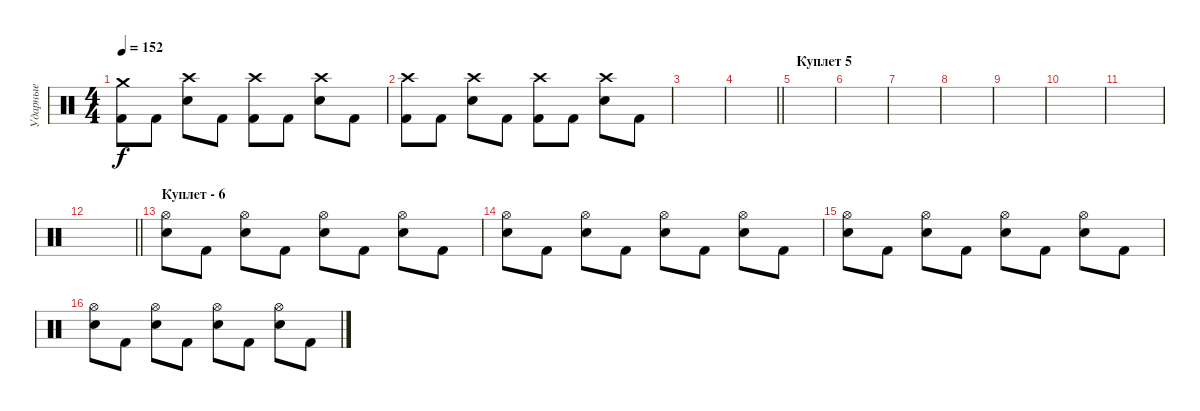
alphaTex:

\track ("Ударные" "Ударные") {instrument percussion}
\staff {score}
\articulation defaults
\ts (4 4)
\tempo 152
\clef neutral
\ks c
("Crash medium (hit)" "Kick (hit) 2").8{dy f} "Kick (hit) 2".8 ("Crash high (hit)" "Snare (hit) 2").8 "Kick (hit) 2".8 ("Crash high (hit)" "Kick (hit) 2").8 "Kick (hit) 2".8 ("Crash high (hit)" "Snare (hit) 2").8 "Kick (hit) 2".8 |
("Crash high (hit)" "Kick (hit) 2").8 "Kick (hit) 2".8 ("Crash high (hit)" "Snare (hit) 2").8 "Kick (hit) 2".8 ("Crash high (hit)" "Kick (hit) 2").8 "Kick (hit) 2".8 ("Crash high (hit)" "Snare (hit) 2").8 "Kick (hit) 2".8 |
|
\barLineRight lightlight
|
\section ("" "Куплет 5")
|
|
|
|
|
|
|
\barLineRight lightlight
|
\section ("" "Куплет - 6")
("Hi-Hat (open)" "Snare (hit) 2").8 "Kick (hit) 2".8 ("Hi-Hat (open)" "Snare (hit) 2").8 "Kick (hit) 2".8 ("Hi-Hat (open)" "Snare (hit) 2").8 "Kick (hit) 2".8 ("Hi-Hat (open)" "Snare (hit) 2").8 "Kick (hit) 2".8 |
("Hi-Hat (open)" "Snare (hit) 2").8 "Kick (hit) 2".8 ("Hi-Hat (open)" "Snare (hit) 2").8 "Kick (hit) 2".8 ("Hi-Hat (open)" "Snare (hit) 2").8 "Kick (hit) 2".8 ("Hi-Hat (open)" "Snare (hit) 2").8 "Kick (hit) 2".8 |
("Hi-Hat (open)" "Snare (hit) 2").8 "Kick (hit) 2".8 ("Hi-Hat (open)" "Snare (hit) 2").8 "Kick (hit) 2".8 ("Hi-Hat (open)" "Snare (hit) 2").8 "Kick (hit) 2".8 ("Hi-Hat (open)" "Snare (hit) 2").8 "Kick (hit) 2".8 |
("Hi-Hat (open)" "Snare (hit) 2").8 "Kick (hit) 2".8 ("Hi-Hat (open)" "Snare (hit) 2").8 "Kick (hit) 2".8 ("Hi-Hat (open)" "Snare (hit) 2").8 "Kick (hit) 2".8 ("Hi-Hat (open)" "Snare (hit) 2").8 "Kick (hit) 2".8
